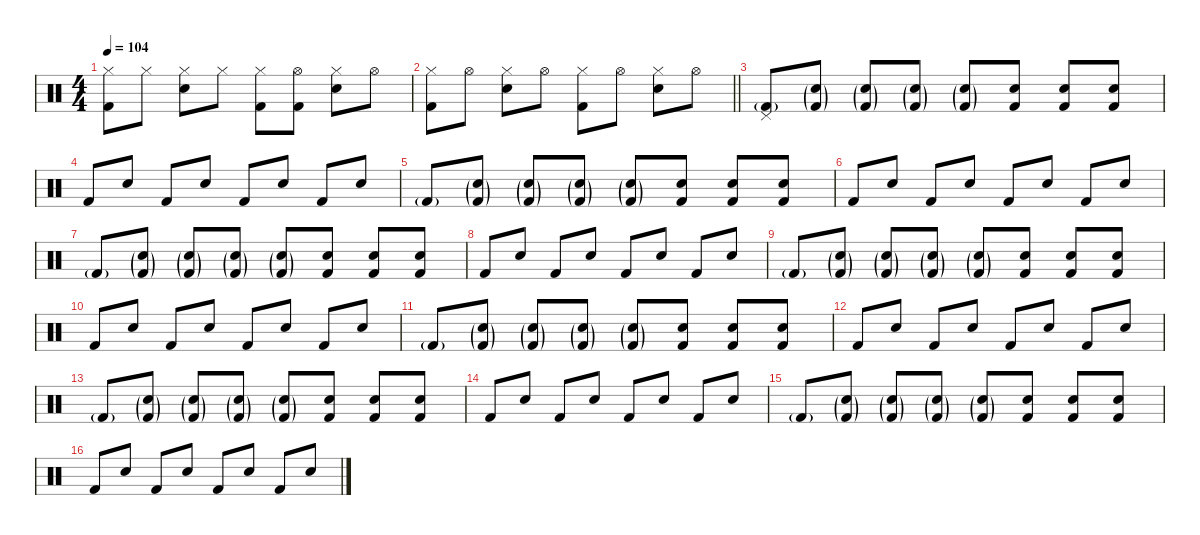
\defaultSystemsLayout 4
\hideDynamics
\bracketExtendMode nobrackets
\singleTrackTrackNamePolicy hidden
\multiTrackTrackNamePolicy hidden
\firstSystemTrackNameMode fullname
\firstSystemTrackNameOrientation horizontal
\otherSystemsTrackNameOrientation horizontal
\track ("Drums" "drm.") {instrument percussion}
\staff {score}
\articulation defaults
\ts (4 4)
\tempo 104
\clef neutral
\ks c
("Hi-Hat (closed)" "Kick (hit) 2").8{dy f beam Down} "Hi-Hat (closed)".8{beam Down} ("Hi-Hat (closed)" "Snare (hit) 2").8{beam Down} "Hi-Hat (closed)".8{beam Down} ("Hi-Hat (closed)" "Kick (hit) 2").8{beam Down} ("Hi-Hat (open)" "Kick (hit) 2").8{beam Down} ("Hi-Hat (closed)" "Snare (hit) 2").8{beam Down} "Hi-Hat (open)".8{beam Down} |
\barLineRight lightlight
("Hi-Hat (closed)" "Kick (hit) 2").8{beam Down} "Hi-Hat (open)".8{beam Down} ("Hi-Hat (closed)" "Snare (hit) 2").8{beam Down} "Hi-Hat (open)".8{beam Down} ("Hi-Hat (closed)" "Kick (hit) 2").8{beam Down} "Hi-Hat (open)".8{beam Down} ("Hi-Hat (closed)" "Snare (hit) 2").8{beam Down} "Hi-Hat (open)".8{beam Down} |
\section ("" "")
("Pedal Hi-Hat (hit)" "Kick (hit) 2"{g}).8{beam Up} ("Snare (hit) 2"{g} "Kick (hit) 2"{g}).8{dy mp beam Up} ("Snare (hit) 2"{g} "Kick (hit) 2"{g}).8{beam Up} ("Snare (hit) 2"{g} "Kick (hit) 2"{g}).8{dy mf beam Up} ("Snare (hit) 2"{g} "Kick (hit) 2"{g}).8{beam Up} ("Snare (hit) 2" "Kick (hit) 2").8{beam Up} ("Snare (hit) 2" "Kick (hit) 2").8{beam Up} ("Snare (hit) 2" "Kick (hit) 2").8{beam Up} |
"Kick (hit) 2".8{dy f beam Up} "Snare (hit) 2".8{beam Up} "Kick (hit) 2".8{beam Up} "Snare (hit) 2".8{beam Up} "Kick (hit) 2".8{beam Up} "Snare (hit) 2".8{beam Up} "Kick (hit) 2".8{beam Up} "Snare (hit) 2".8{beam Up} |
"Kick (hit) 2"{g}.8{dy mp beam Up} ("Snare (hit) 2"{g} "Kick (hit) 2"{g}).8{beam Up} ("Snare (hit) 2"{g} "Kick (hit) 2"{g}).8{beam Up} ("Snare (hit) 2"{g} "Kick (hit) 2"{g}).8{dy mf beam Up} ("Snare (hit) 2"{g} "Kick (hit) 2"{g}).8{beam Up} ("Snare (hit) 2" "Kick (hit) 2").8{beam Up} ("Snare (hit) 2" "Kick (hit) 2").8{beam Up} ("Snare (hit) 2" "Kick (hit) 2").8{beam Up} |
"Kick (hit) 2".8{dy f beam Up} "Snare (hit) 2".8{beam Up} "Kick (hit) 2".8{beam Up} "Snare (hit) 2".8{beam Up} "Kick (hit) 2".8{beam Up} "Snare (hit) 2".8{beam Up} "Kick (hit) 2".8{beam Up} "Snare (hit) 2".8{beam Up} |
"Kick (hit) 2"{g}.8{dy mp beam Up} ("Snare (hit) 2"{g} "Kick (hit) 2"{g}).8{beam Up} ("Snare (hit) 2"{g} "Kick (hit) 2"{g}).8{beam Up} ("Snare (hit) 2"{g} "Kick (hit) 2"{g}).8{dy mf beam Up} ("Snare (hit) 2"{g} "Kick (hit) 2"{g}).8{beam Up} ("Snare (hit) 2" "Kick (hit) 2").8{beam Up} ("Snare (hit) 2" "Kick (hit) 2").8{beam Up} ("Snare (hit) 2" "Kick (hit) 2").8{beam Up} |
"Kick (hit) 2".8{dy f beam Up} "Snare (hit) 2".8{beam Up} "Kick (hit) 2".8{beam Up} "Snare (hit) 2".8{beam Up} "Kick (hit) 2".8{beam Up} "Snare (hit) 2".8{beam Up} "Kick (hit) 2".8{beam Up} "Snare (hit) 2".8{beam Up} |
"Kick (hit) 2"{g}.8{dy mp beam Up} ("Snare (hit) 2"{g} "Kick (hit) 2"{g}).8{beam Up} ("Snare (hit) 2"{g} "Kick (hit) 2"{g}).8{beam Up} ("Snare (hit) 2"{g} "Kick (hit) 2"{g}).8{dy mf beam Up} ("Snare (hit) 2"{g} "Kick (hit) 2"{g}).8{beam Up} ("Snare (hit) 2" "Kick (hit) 2").8{beam Up} ("Snare (hit) 2" "Kick (hit) 2").8{beam Up} ("Snare (hit) 2" "Kick (hit) 2").8{beam Up} |
"Kick (hit) 2".8{dy f beam Up} "Snare (hit) 2".8{beam Up} "Kick (hit) 2".8{beam Up} "Snare (hit) 2".8{beam Up} "Kick (hit) 2".8{beam Up} "Snare (hit) 2".8{beam Up} "Kick (hit) 2".8{beam Up} "Snare (hit) 2".8{beam Up} |
"Kick (hit) 2"{g}.8{dy mp beam Up} ("Snare (hit) 2"{g} "Kick (hit) 2"{g}).8{beam Up} ("Snare (hit) 2"{g} "Kick (hit) 2"{g}).8{beam Up} ("Snare (hit) 2"{g} "Kick (hit) 2"{g}).8{dy mf beam Up} ("Snare (hit) 2"{g} "Kick (hit) 2"{g}).8{beam Up} ("Snare (hit) 2" "Kick (hit) 2").8{beam Up} ("Snare (hit) 2" "Kick (hit) 2").8{beam Up} ("Snare (hit) 2" "Kick (hit) 2").8{beam Up} |
"Kick (hit) 2".8{dy f beam Up} "Snare (hit) 2".8{beam Up} "Kick (hit) 2".8{beam Up} "Snare (hit) 2".8{beam Up} "Kick (hit) 2".8{beam Up} "Snare (hit) 2".8{beam Up} "Kick (hit) 2".8{beam Up} "Snare (hit) 2".8{beam Up} |
"Kick (hit) 2"{g}.8{dy mp beam Up} ("Snare (hit) 2"{g} "Kick (hit) 2"{g}).8{beam Up} ("Snare (hit) 2"{g} "Kick (hit) 2"{g}).8{beam Up} ("Snare (hit) 2"{g} "Kick (hit) 2"{g}).8{dy mf beam Up} ("Snare (hit) 2"{g} "Kick (hit) 2"{g}).8{beam Up} ("Snare (hit) 2" "Kick (hit) 2").8{beam Up} ("Snare (hit) 2" "Kick (hit) 2").8{beam Up} ("Snare (hit) 2" "Kick (hit) 2").8{beam Up} |
"Kick (hit) 2".8{dy f beam Up} "Snare (hit) 2".8{beam Up} "Kick (hit) 2".8{beam Up} "Snare (hit) 2".8{beam Up} "Kick (hit) 2".8{beam Up} "Snare (hit) 2".8{beam Up} "Kick (hit) 2".8{beam Up} "Snare (hit) 2".8{beam Up} |
"Kick (hit) 2"{g}.8{dy mp beam Up} ("Snare (hit) 2"{g} "Kick (hit) 2"{g}).8{beam Up} ("Snare (hit) 2"{g} "Kick (hit) 2"{g}).8{beam Up} ("Snare (hit) 2"{g} "Kick (hit) 2"{g}).8{dy mf beam Up} ("Snare (hit) 2"{g} "Kick (hit) 2"{g}).8{beam Up} ("Snare (hit) 2" "Kick (hit) 2").8{beam Up} ("Snare (hit) 2" "Kick (hit) 2").8{beam Up} ("Snare (hit) 2" "Kick (hit) 2").8{beam Up} |
"Kick (hit) 2".8{dy f beam Up} "Snare (hit) 2".8{beam Up} "Kick (hit) 2".8{beam Up} "Snare (hit) 2".8{beam Up} "Kick (hit) 2".8{beam Up} "Snare (hit) 2".8{beam Up} "Kick (hit) 2".8{beam Up} "Snare (hit) 2".8{beam Up}
